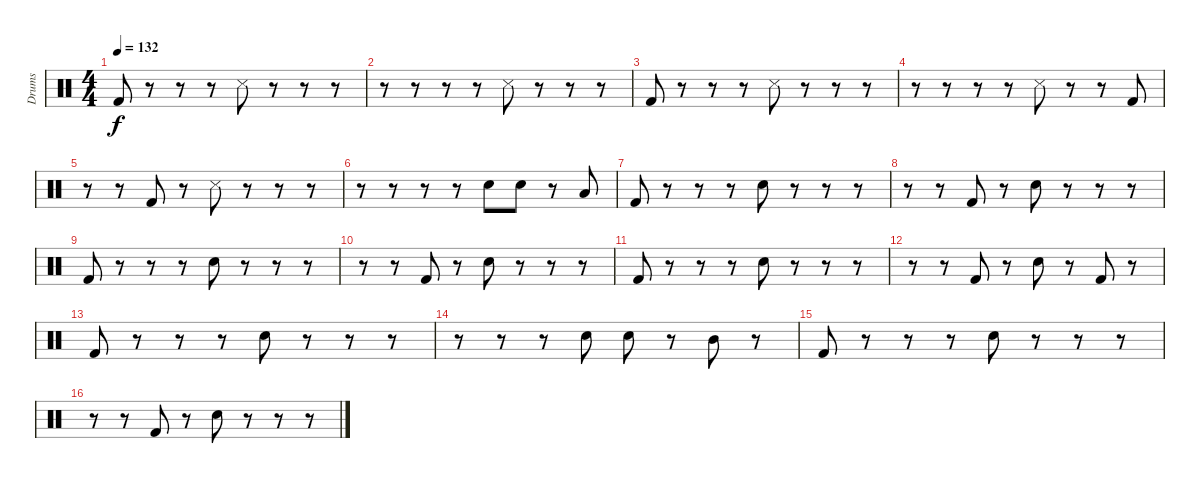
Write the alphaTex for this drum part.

\track ("Drums" "Drums") {instrument percussion}
\staff {score}
\articulation defaults
\ts (4 4)
\tempo 132
\clef neutral
\ks c "Kick (hit) 2".8{dy f}
r.8 r.8 r.8 "Snare (side stick) 3".8 r.8 r.8 r.8 |
r.8 r.8 r.8 r.8 "Snare (side stick) 3".8 r.8 r.8 r.8 |
"Kick (hit) 2".8 r.8 r.8 r.8 "Snare (side stick) 3".8 r.8 r.8 r.8 |
r.8 r.8 r.8 r.8 "Snare (side stick) 3".8 r.8 r.8 "Kick (hit) 2".8 |
r.8 r.8 "Kick (hit) 2".8 r.8 "Snare (side stick) 3".8 r.8 r.8 r.8 |
r.8 r.8 r.8 r.8 "Snare (hit) 2".8 "Snare (hit) 2".8 r.8 "Low Tom (hit)".8 |
"Kick (hit) 2".8 r.8 r.8 r.8 "Snare (hit) 2".8 r.8 r.8 r.8 |
r.8 r.8 "Kick (hit) 2".8 r.8 "Snare (hit) 2".8 r.8 r.8 r.8 |
"Kick (hit) 2".8 r.8 r.8 r.8 "Snare (hit) 2".8 r.8 r.8 r.8 |
r.8 r.8 "Kick (hit) 2".8 r.8 "Snare (hit) 2".8 r.8 r.8 r.8 |
"Kick (hit) 2".8 r.8 r.8 r.8 "Snare (hit) 2".8 r.8 r.8 r.8 |
r.8 r.8 "Kick (hit) 2".8 r.8 "Snare (hit) 2".8 r.8 "Kick (hit) 2".8 r.8 |
"Kick (hit) 2".8 r.8 r.8 r.8 "Snare (hit) 2".8 r.8 r.8 r.8 |
r.8 r.8 r.8 "Snare (hit) 2".8 "Snare (hit) 2".8 r.8 "Mid Tom (hit)".8 r.8 |
"Kick (hit) 2".8 r.8 r.8 r.8 "Snare (hit) 2".8 r.8 r.8 r.8 |
r.8 r.8 "Kick (hit) 2".8 r.8 "Snare (hit) 2".8 r.8 r.8 r.8
